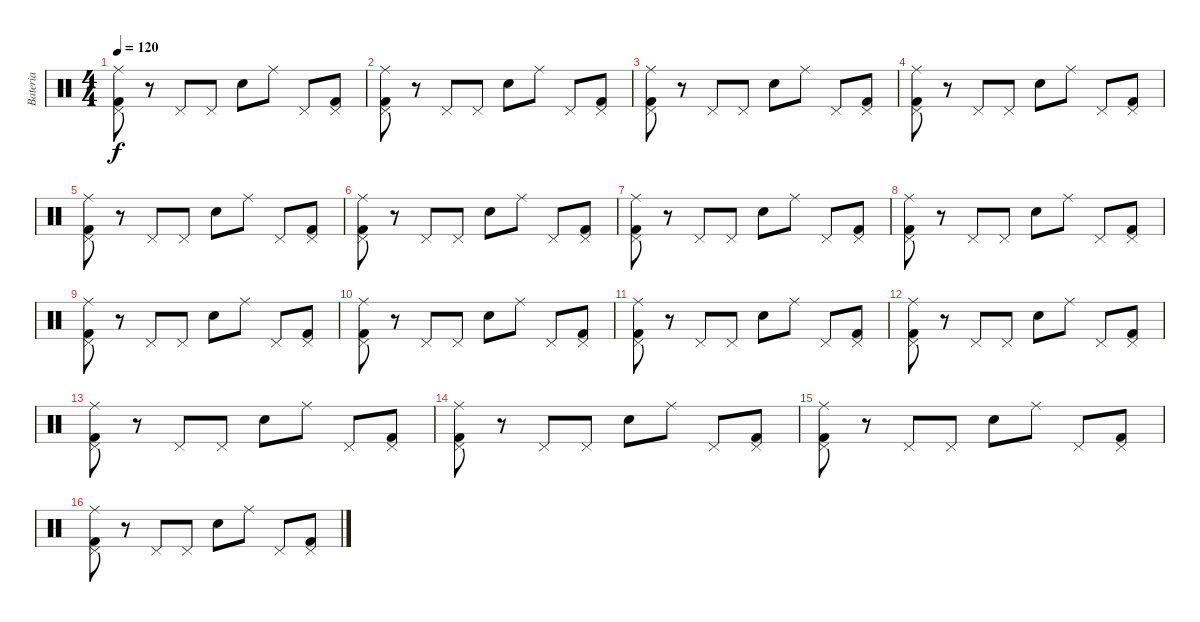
\track ("Bateria" "Bateria") {instrument percussion}
\staff {score}
\articulation defaults
\ts (4 4)
\tempo 120
\clef neutral
\ks c
("Kick (hit) 2" "Pedal Hi-Hat (hit)" "Ride (middle)").8{dy f} r.8 "Pedal Hi-Hat (hit)".8 "Pedal Hi-Hat (hit)".8 "Snare (hit) 2".8 "Ride (middle)".8 "Pedal Hi-Hat (hit)".8 ("Kick (hit) 2" "Pedal Hi-Hat (hit)").8 |
("Kick (hit) 2" "Pedal Hi-Hat (hit)" "Ride (middle)").8 r.8 "Pedal Hi-Hat (hit)".8 "Pedal Hi-Hat (hit)".8 "Snare (hit) 2".8 "Ride (middle)".8 "Pedal Hi-Hat (hit)".8 ("Kick (hit) 2" "Pedal Hi-Hat (hit)").8 |
("Kick (hit) 2" "Pedal Hi-Hat (hit)" "Ride (middle)").8 r.8 "Pedal Hi-Hat (hit)".8 "Pedal Hi-Hat (hit)".8 "Snare (hit) 2".8 "Ride (middle)".8 "Pedal Hi-Hat (hit)".8 ("Kick (hit) 2" "Pedal Hi-Hat (hit)").8 |
("Kick (hit) 2" "Pedal Hi-Hat (hit)" "Ride (middle)").8 r.8 "Pedal Hi-Hat (hit)".8 "Pedal Hi-Hat (hit)".8 "Snare (hit) 2".8 "Ride (middle)".8 "Pedal Hi-Hat (hit)".8 ("Kick (hit) 2" "Pedal Hi-Hat (hit)").8 |
("Kick (hit) 2" "Pedal Hi-Hat (hit)" "Ride (middle)").8 r.8 "Pedal Hi-Hat (hit)".8 "Pedal Hi-Hat (hit)".8 "Snare (hit) 2".8 "Ride (middle)".8 "Pedal Hi-Hat (hit)".8 ("Kick (hit) 2" "Pedal Hi-Hat (hit)").8 |
("Kick (hit) 2" "Pedal Hi-Hat (hit)" "Ride (middle)").8 r.8 "Pedal Hi-Hat (hit)".8 "Pedal Hi-Hat (hit)".8 "Snare (hit) 2".8 "Ride (middle)".8 "Pedal Hi-Hat (hit)".8 ("Kick (hit) 2" "Pedal Hi-Hat (hit)").8 |
("Kick (hit) 2" "Pedal Hi-Hat (hit)" "Ride (middle)").8 r.8 "Pedal Hi-Hat (hit)".8 "Pedal Hi-Hat (hit)".8 "Snare (hit) 2".8 "Ride (middle)".8 "Pedal Hi-Hat (hit)".8 ("Kick (hit) 2" "Pedal Hi-Hat (hit)").8 |
("Kick (hit) 2" "Pedal Hi-Hat (hit)" "Ride (middle)").8 r.8 "Pedal Hi-Hat (hit)".8 "Pedal Hi-Hat (hit)".8 "Snare (hit) 2".8 "Ride (middle)".8 "Pedal Hi-Hat (hit)".8 ("Kick (hit) 2" "Pedal Hi-Hat (hit)").8 |
("Kick (hit) 2" "Pedal Hi-Hat (hit)" "Ride (middle)").8 r.8 "Pedal Hi-Hat (hit)".8 "Pedal Hi-Hat (hit)".8 "Snare (hit) 2".8 "Ride (middle)".8 "Pedal Hi-Hat (hit)".8 ("Kick (hit) 2" "Pedal Hi-Hat (hit)").8 |
("Kick (hit) 2" "Pedal Hi-Hat (hit)" "Ride (middle)").8 r.8 "Pedal Hi-Hat (hit)".8 "Pedal Hi-Hat (hit)".8 "Snare (hit) 2".8 "Ride (middle)".8 "Pedal Hi-Hat (hit)".8 ("Kick (hit) 2" "Pedal Hi-Hat (hit)").8 |
("Kick (hit) 2" "Pedal Hi-Hat (hit)" "Ride (middle)").8 r.8 "Pedal Hi-Hat (hit)".8 "Pedal Hi-Hat (hit)".8 "Snare (hit) 2".8 "Ride (middle)".8 "Pedal Hi-Hat (hit)".8 ("Kick (hit) 2" "Pedal Hi-Hat (hit)").8 |
("Kick (hit) 2" "Pedal Hi-Hat (hit)" "Ride (middle)").8 r.8 "Pedal Hi-Hat (hit)".8 "Pedal Hi-Hat (hit)".8 "Snare (hit) 2".8 "Ride (middle)".8 "Pedal Hi-Hat (hit)".8 ("Kick (hit) 2" "Pedal Hi-Hat (hit)").8 |
("Kick (hit) 2" "Pedal Hi-Hat (hit)" "Ride (middle)").8 r.8 "Pedal Hi-Hat (hit)".8 "Pedal Hi-Hat (hit)".8 "Snare (hit) 2".8 "Ride (middle)".8 "Pedal Hi-Hat (hit)".8 ("Kick (hit) 2" "Pedal Hi-Hat (hit)").8 |
("Kick (hit) 2" "Pedal Hi-Hat (hit)" "Ride (middle)").8 r.8 "Pedal Hi-Hat (hit)".8 "Pedal Hi-Hat (hit)".8 "Snare (hit) 2".8 "Ride (middle)".8 "Pedal Hi-Hat (hit)".8 ("Kick (hit) 2" "Pedal Hi-Hat (hit)").8 |
("Kick (hit) 2" "Pedal Hi-Hat (hit)" "Ride (middle)").8 r.8 "Pedal Hi-Hat (hit)".8 "Pedal Hi-Hat (hit)".8 "Snare (hit) 2".8 "Ride (middle)".8 "Pedal Hi-Hat (hit)".8 ("Kick (hit) 2" "Pedal Hi-Hat (hit)").8 |
("Kick (hit) 2" "Pedal Hi-Hat (hit)" "Ride (middle)").8 r.8 "Pedal Hi-Hat (hit)".8 "Pedal Hi-Hat (hit)".8 "Snare (hit) 2".8 "Ride (middle)".8 "Pedal Hi-Hat (hit)".8 ("Kick (hit) 2" "Pedal Hi-Hat (hit)").8
